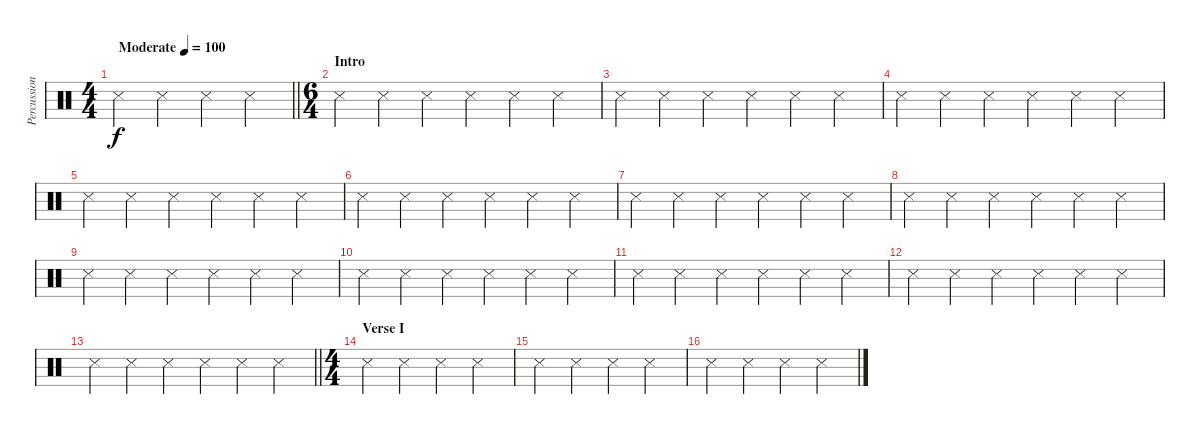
\track ("Percussion" "Percussion") {mute instrument percussion}
\staff {score}
\articulation defaults
\ts (4 4)
\tempo (100 "Moderate")
\clef neutral
\barLineRight lightlight
\ks c "Metronome (hit)".4{dy f} "Snare (side stick) 3".4 "Snare (side stick) 3".4 "Snare (side stick) 3".4
|
\ts (6 4)
\section ("" "Intro")
"Metronome (hit)".4 "Snare (side stick) 3".4 "Snare (side stick) 3".4 "Snare (side stick) 3".4 "Snare (side stick) 3".4 "Snare (side stick) 3".4 |
"Metronome (hit)".4 "Snare (side stick) 3".4 "Snare (side stick) 3".4 "Snare (side stick) 3".4 "Snare (side stick) 3".4 "Snare (side stick) 3".4 |
"Metronome (hit)".4 "Snare (side stick) 3".4 "Snare (side stick) 3".4 "Snare (side stick) 3".4 "Snare (side stick) 3".4 "Snare (side stick) 3".4 |
"Metronome (hit)".4 "Snare (side stick) 3".4 "Snare (side stick) 3".4 "Snare (side stick) 3".4 "Snare (side stick) 3".4 "Snare (side stick) 3".4 |
"Metronome (hit)".4 "Snare (side stick) 3".4 "Snare (side stick) 3".4 "Snare (side stick) 3".4 "Snare (side stick) 3".4 "Snare (side stick) 3".4 |
"Metronome (hit)".4 "Snare (side stick) 3".4 "Snare (side stick) 3".4 "Snare (side stick) 3".4 "Snare (side stick) 3".4 "Snare (side stick) 3".4 |
"Metronome (hit)".4 "Snare (side stick) 3".4 "Snare (side stick) 3".4 "Snare (side stick) 3".4 "Snare (side stick) 3".4 "Snare (side stick) 3".4 |
"Metronome (hit)".4 "Snare (side stick) 3".4 "Snare (side stick) 3".4 "Snare (side stick) 3".4 "Snare (side stick) 3".4 "Snare (side stick) 3".4 |
"Metronome (hit)".4 "Snare (side stick) 3".4 "Snare (side stick) 3".4 "Snare (side stick) 3".4 "Snare (side stick) 3".4 "Snare (side stick) 3".4 |
"Metronome (hit)".4 "Snare (side stick) 3".4 "Snare (side stick) 3".4 "Snare (side stick) 3".4 "Snare (side stick) 3".4 "Snare (side stick) 3".4 |
"Metronome (hit)".4 "Snare (side stick) 3".4 "Snare (side stick) 3".4 "Snare (side stick) 3".4 "Snare (side stick) 3".4 "Snare (side stick) 3".4 |
\barLineRight lightlight "Metronome (hit)".4 "Snare (side stick) 3".4 "Snare (side stick) 3".4 "Snare (side stick) 3".4 "Snare (side stick) 3".4 "Snare (side stick) 3".4
|
\ts (4 4)
\section ("" "Verse I")
"Metronome (hit)".4 "Snare (side stick) 3".4 "Snare (side stick) 3".4 "Snare (side stick) 3".4 |
"Metronome (hit)".4 "Snare (side stick) 3".4 "Snare (side stick) 3".4 "Snare (side stick) 3".4 |
"Metronome (hit)".4 "Snare (side stick) 3".4 "Snare (side stick) 3".4 "Snare (side stick) 3".4
